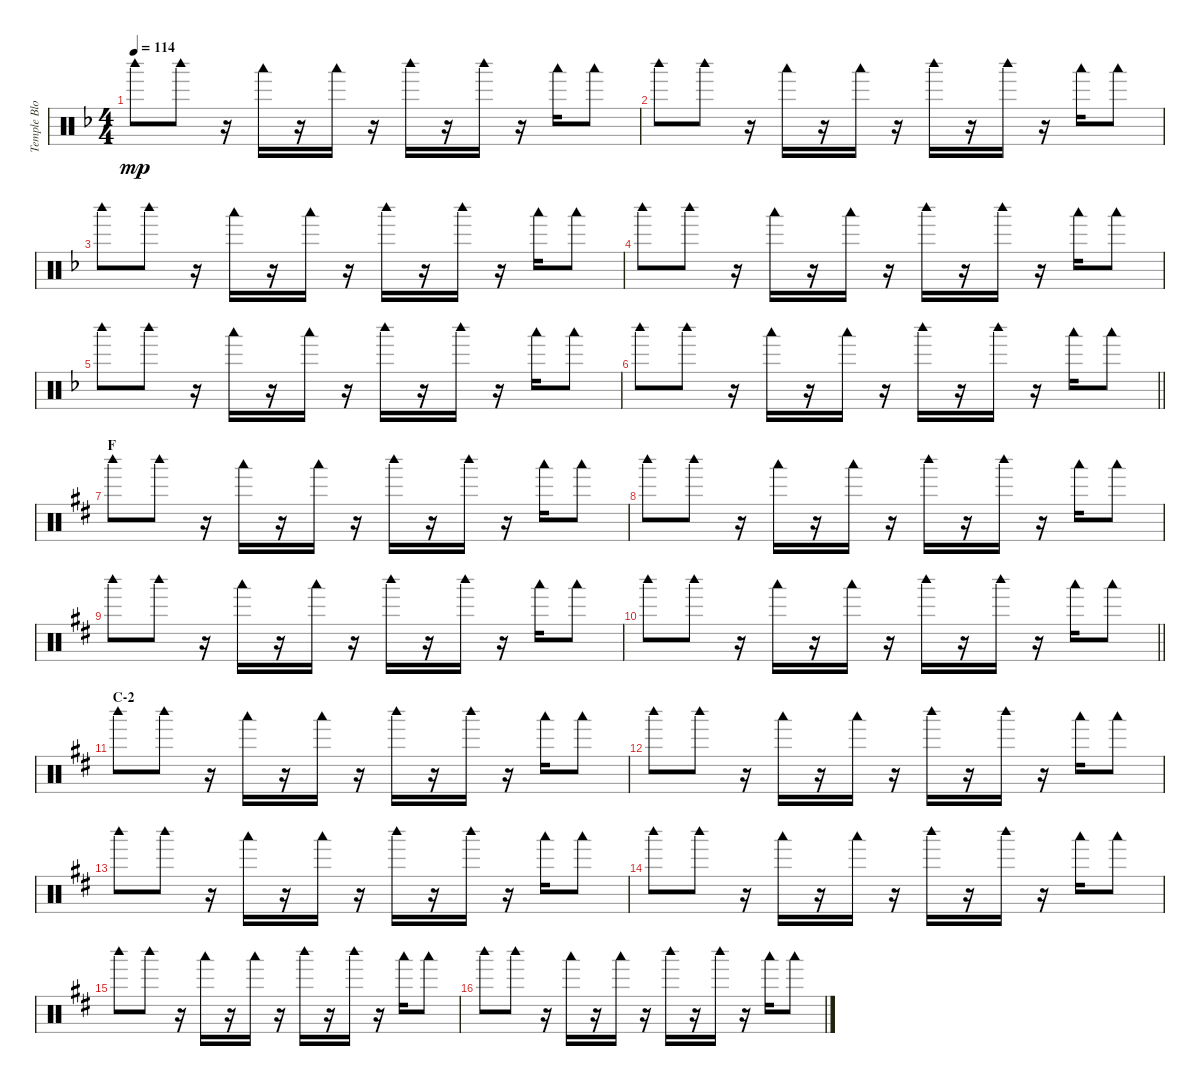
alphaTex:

\track ("Temple Block" "Temple Blo") {instrument percussion}
\staff {score}
\articulation defaults
\ts (4 4)
\tempo 114
\clef neutral
\ks f "Woodblock high (hit)".8{dy mp} "Woodblock high (hit)".8
r.16 "Woodblock low (hit)".16 r.16 "Woodblock low (hit)".16 r.16 "Woodblock high (hit)".16 r.16 "Woodblock high (hit)".16 r.16 "Woodblock low (hit)".16 "Woodblock low (hit)".8 |
"Woodblock high (hit)".8 "Woodblock high (hit)".8 r.16 "Woodblock low (hit)".16 r.16 "Woodblock low (hit)".16 r.16 "Woodblock high (hit)".16 r.16 "Woodblock high (hit)".16 r.16 "Woodblock low (hit)".16 "Woodblock low (hit)".8 |
"Woodblock high (hit)".8 "Woodblock high (hit)".8 r.16 "Woodblock low (hit)".16 r.16 "Woodblock low (hit)".16 r.16 "Woodblock high (hit)".16 r.16 "Woodblock high (hit)".16 r.16 "Woodblock low (hit)".16 "Woodblock low (hit)".8 |
"Woodblock high (hit)".8 "Woodblock high (hit)".8 r.16 "Woodblock low (hit)".16 r.16 "Woodblock low (hit)".16 r.16 "Woodblock high (hit)".16 r.16 "Woodblock high (hit)".16 r.16 "Woodblock low (hit)".16 "Woodblock low (hit)".8 |
"Woodblock high (hit)".8 "Woodblock high (hit)".8 r.16 "Woodblock low (hit)".16 r.16 "Woodblock low (hit)".16 r.16 "Woodblock high (hit)".16 r.16 "Woodblock high (hit)".16 r.16 "Woodblock low (hit)".16 "Woodblock low (hit)".8 |
\barLineRight lightlight "Woodblock high (hit)".8 "Woodblock high (hit)".8
r.16 "Woodblock low (hit)".16 r.16 "Woodblock low (hit)".16 r.16 "Woodblock high (hit)".16 r.16 "Woodblock high (hit)".16 r.16 "Woodblock low (hit)".16 "Woodblock low (hit)".8 |
\section ("" "F")
\ks d "Woodblock high (hit)".8 "Woodblock high (hit)".8
r.16 "Woodblock low (hit)".16 r.16 "Woodblock low (hit)".16 r.16 "Woodblock high (hit)".16 r.16 "Woodblock high (hit)".16 r.16 "Woodblock low (hit)".16 "Woodblock low (hit)".8 |
"Woodblock high (hit)".8 "Woodblock high (hit)".8 r.16 "Woodblock low (hit)".16 r.16 "Woodblock low (hit)".16 r.16 "Woodblock high (hit)".16 r.16 "Woodblock high (hit)".16 r.16 "Woodblock low (hit)".16 "Woodblock low (hit)".8 |
"Woodblock high (hit)".8 "Woodblock high (hit)".8 r.16 "Woodblock low (hit)".16 r.16 "Woodblock low (hit)".16 r.16 "Woodblock high (hit)".16 r.16 "Woodblock high (hit)".16 r.16 "Woodblock low (hit)".16 "Woodblock low (hit)".8 |
\barLineRight lightlight "Woodblock high (hit)".8 "Woodblock high (hit)".8
r.16 "Woodblock low (hit)".16 r.16 "Woodblock low (hit)".16 r.16 "Woodblock high (hit)".16 r.16 "Woodblock high (hit)".16 r.16 "Woodblock low (hit)".16 "Woodblock low (hit)".8 |
\section ("" "C-2")
"Woodblock high (hit)".8 "Woodblock high (hit)".8 r.16 "Woodblock low (hit)".16 r.16 "Woodblock low (hit)".16 r.16 "Woodblock high (hit)".16 r.16 "Woodblock high (hit)".16 r.16 "Woodblock low (hit)".16 "Woodblock low (hit)".8 |
"Woodblock high (hit)".8 "Woodblock high (hit)".8 r.16 "Woodblock low (hit)".16 r.16 "Woodblock low (hit)".16 r.16 "Woodblock high (hit)".16 r.16 "Woodblock high (hit)".16 r.16 "Woodblock low (hit)".16 "Woodblock low (hit)".8 |
"Woodblock high (hit)".8 "Woodblock high (hit)".8 r.16 "Woodblock low (hit)".16 r.16 "Woodblock low (hit)".16 r.16 "Woodblock high (hit)".16 r.16 "Woodblock high (hit)".16 r.16 "Woodblock low (hit)".16 "Woodblock low (hit)".8 |
"Woodblock high (hit)".8 "Woodblock high (hit)".8 r.16 "Woodblock low (hit)".16 r.16 "Woodblock low (hit)".16 r.16 "Woodblock high (hit)".16 r.16 "Woodblock high (hit)".16 r.16 "Woodblock low (hit)".16 "Woodblock low (hit)".8 |
"Woodblock high (hit)".8 "Woodblock high (hit)".8 r.16 "Woodblock low (hit)".16 r.16 "Woodblock low (hit)".16 r.16 "Woodblock high (hit)".16 r.16 "Woodblock high (hit)".16 r.16 "Woodblock low (hit)".16 "Woodblock low (hit)".8 |
"Woodblock high (hit)".8 "Woodblock high (hit)".8 r.16 "Woodblock low (hit)".16 r.16 "Woodblock low (hit)".16 r.16 "Woodblock high (hit)".16 r.16 "Woodblock high (hit)".16 r.16 "Woodblock low (hit)".16 "Woodblock low (hit)".8
